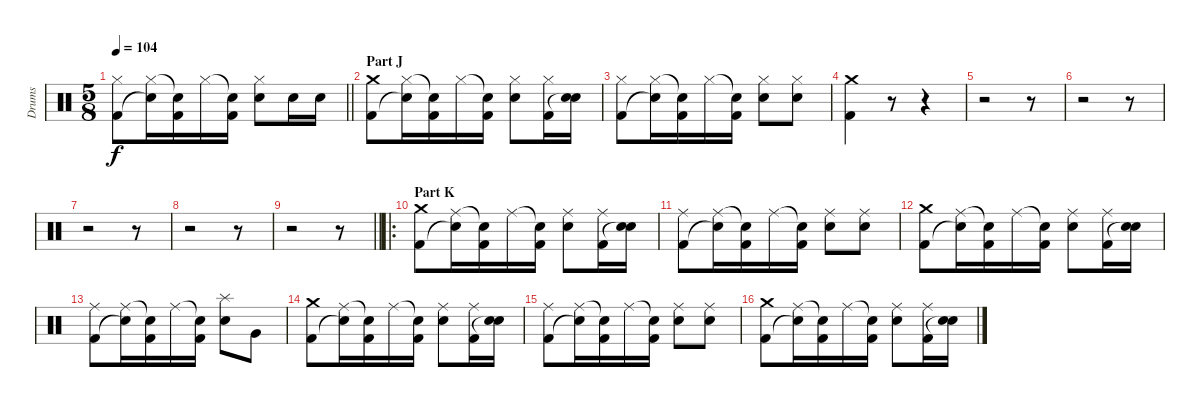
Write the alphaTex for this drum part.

\track ("Drums" "Drums") {instrument percussion}
\staff {score}
\articulation defaults
\ts (5 8)
\tempo 104
\clef neutral
\barLineRight lightlight
\ks c
("Hi-Hat (closed)" "Kick (hit) 2").8{dy f} ("Hi-Hat (closed)" "Snare (hit)"{t}).16 ("Snare (hit)"{t} "Kick (hit) 2").16 "Hi-Hat (closed)".16 ("Snare (hit)"{t} "Kick (hit) 2").16 ("Hi-Hat (closed)" "Electric Snare (hit)").8 "Electric Snare (hit)".16 "Electric Snare (hit)".16 |
\section ("" "Part J")
("Crash medium (hit)" "Kick (hit) 2").8 ("Hi-Hat (closed)" "Snare (hit)"{t}).16 ("Snare (hit)"{t} "Kick (hit) 2").16 "Hi-Hat (closed)".16 ("Snare (hit)"{t} "Kick (hit) 2").16 ("Hi-Hat (closed)" "Electric Snare (hit)").8 ("Hi-Hat (closed)" "Kick (hit) 2").16 ("Electric Snare (hit)" "Snare (hit)"{t}).16 |
("Hi-Hat (closed)" "Kick (hit) 2").8 ("Hi-Hat (closed)" "Snare (hit)"{t}).16 ("Snare (hit)"{t} "Kick (hit) 2").16 "Hi-Hat (closed)".16 ("Snare (hit)"{t} "Kick (hit) 2").16 ("Hi-Hat (closed)" "Electric Snare (hit)").8 ("Hi-Hat (closed)" "Electric Snare (hit)").8 |
("Crash medium (hit)" "Kick (hit) 2").4 r.8 r.4 |
r.2 r.8 |
r.2 r.8 |
r.2 r.8 |
r.2 r.8 |
\barLineRight lightlight
r.2 r.8 |
\ro
\section ("" "Part K")
("Crash medium (hit)" "Kick (hit) 2").8 ("Ride (middle)" "Snare (hit)"{t}).16 ("Snare (hit)"{t} "Kick (hit) 2").16 "Ride (middle)".16 ("Snare (hit)"{t} "Kick (hit) 2").16 ("Ride (middle)" "Electric Snare (hit)").8 ("Ride (middle)" "Kick (hit) 2").16 ("Electric Snare (hit)" "Snare (hit)"{t}).16 |
("Ride (middle)" "Kick (hit) 2").8 ("Ride (middle)" "Snare (hit)"{t}).16 ("Snare (hit)"{t} "Kick (hit) 2").16 "Ride (middle)".16 ("Snare (hit)"{t} "Kick (hit) 2").16 ("Ride (middle)" "Electric Snare (hit)").8 ("Ride (middle)" "Electric Snare (hit)").8 |
("Crash medium (hit)" "Kick (hit) 2").8 ("Ride (middle)" "Snare (hit)"{t}).16 ("Snare (hit)"{t} "Kick (hit) 2").16 "Ride (middle)".16 ("Snare (hit)"{t} "Kick (hit) 2").16 ("Ride (middle)" "Electric Snare (hit)").8 ("Ride (middle)" "Kick (hit) 2").16 ("Electric Snare (hit)" "Snare (hit)"{t}).16 |
("Ride (middle)" "Kick (hit) 2").8 ("Ride (middle)" "Snare (hit)"{t}).16 ("Snare (hit)"{t} "Kick (hit) 2").16 "Ride (middle)".16 ("Snare (hit)"{t} "Kick (hit) 2").16 ("Splash (hit)" "Electric Snare (hit)").8 "Very Low Tom (hit)".8 |
("Crash medium (hit)" "Kick (hit) 2").8 ("Ride (middle)" "Snare (hit)"{t}).16 ("Snare (hit)"{t} "Kick (hit) 2").16 "Ride (middle)".16 ("Snare (hit)"{t} "Kick (hit) 2").16 ("Ride (middle)" "Electric Snare (hit)").8 ("Ride (middle)" "Kick (hit) 2").16 ("Electric Snare (hit)" "Snare (hit)"{t}).16 |
("Ride (middle)" "Kick (hit) 2").8 ("Ride (middle)" "Snare (hit)"{t}).16 ("Snare (hit)"{t} "Kick (hit) 2").16 "Ride (middle)".16 ("Snare (hit)"{t} "Kick (hit) 2").16 ("Ride (middle)" "Electric Snare (hit)").8 ("Ride (middle)" "Electric Snare (hit)").8 |
("Crash medium (hit)" "Kick (hit) 2").8 ("Ride (middle)" "Snare (hit)"{t}).16 ("Snare (hit)"{t} "Kick (hit) 2").16 "Ride (middle)".16 ("Snare (hit)"{t} "Kick (hit) 2").16 ("Ride (middle)" "Electric Snare (hit)").8 ("Ride (middle)" "Kick (hit) 2").16 ("Electric Snare (hit)" "Snare (hit)"{t}).16
